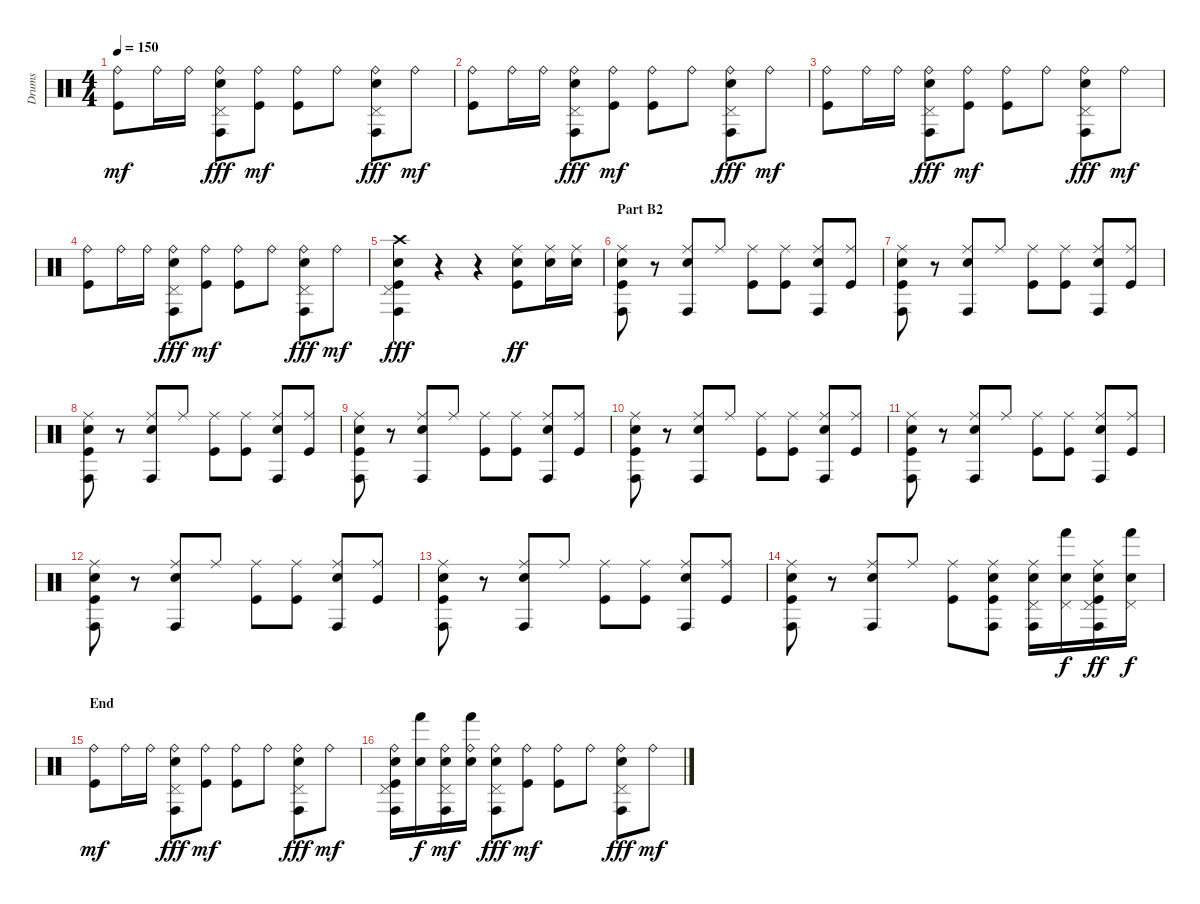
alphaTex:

\track ("Drums" "Drums") {instrument percussion}
\staff {score}
\articulation defaults
\ts (4 4)
\tempo 150
\clef neutral
\ks c
("Ride (bell)" "Kick (hit)").8{dy mf} "Ride (bell)".16 "Ride (bell)".16 ("Ride (bell)" "Pedal Hi-Hat (hit)" "Conga high (hit)" "Electric Snare (hit)").8{dy fff} ("Ride (bell)" "Kick (hit)").8{dy mf} ("Ride (bell)" "Kick (hit)").8 "Ride (bell)".8 ("Ride (bell)" "Pedal Hi-Hat (hit)" "Conga high (hit)" "Electric Snare (hit)").8{dy fff} "Ride (bell)".8{dy mf} |
("Ride (bell)" "Kick (hit)").8 "Ride (bell)".16 "Ride (bell)".16 ("Ride (bell)" "Pedal Hi-Hat (hit)" "Conga high (hit)" "Electric Snare (hit)").8{dy fff} ("Ride (bell)" "Kick (hit)").8{dy mf} ("Ride (bell)" "Kick (hit)").8 "Ride (bell)".8 ("Ride (bell)" "Pedal Hi-Hat (hit)" "Conga high (hit)" "Electric Snare (hit)").8{dy fff} "Ride (bell)".8{dy mf} |
("Ride (bell)" "Kick (hit)").8 "Ride (bell)".16 "Ride (bell)".16 ("Ride (bell)" "Pedal Hi-Hat (hit)" "Conga high (hit)" "Electric Snare (hit)").8{dy fff} ("Ride (bell)" "Kick (hit)").8{dy mf} ("Ride (bell)" "Kick (hit)").8 "Ride (bell)".8 ("Ride (bell)" "Pedal Hi-Hat (hit)" "Conga high (hit)" "Electric Snare (hit)").8{dy fff} "Ride (bell)".8{dy mf} |
("Ride (bell)" "Kick (hit)").8 "Ride (bell)".16 "Ride (bell)".16 ("Ride (bell)" "Pedal Hi-Hat (hit)" "Conga high (hit)" "Electric Snare (hit)").8{dy fff} ("Ride (bell)" "Kick (hit)").8{dy mf} ("Ride (bell)" "Kick (hit)").8 "Ride (bell)".8 ("Ride (bell)" "Pedal Hi-Hat (hit)" "Conga high (hit)" "Electric Snare (hit)").8{dy fff} "Ride (bell)".8{dy mf} |
("Crash high (hit)" "Pedal Hi-Hat (hit)" "Conga high (hit)" "Electric Snare (hit)" "Kick (hit)").4{dy fff} r.4 r.4 ("Ride (middle)" "Electric Snare (hit)" "Kick (hit)").8{dy ff} ("Ride (middle)" "Electric Snare (hit)").16 ("Ride (middle)" "Electric Snare (hit)").16 |
\section ("" "Part B2")
("Ride (middle)" "Conga high (hit)" "Electric Snare (hit)" "Kick (hit)").8 r.8 ("Ride (middle)" "Conga high (hit)" "Electric Snare (hit)").8 "Ride (middle)".8 ("Ride (middle)" "Kick (hit)").8 ("Ride (middle)" "Kick (hit)").8 ("Ride (middle)" "Conga high (hit)" "Electric Snare (hit)").8 ("Ride (middle)" "Kick (hit)").8 |
("Ride (middle)" "Conga high (hit)" "Electric Snare (hit)" "Kick (hit)").8 r.8 ("Ride (middle)" "Conga high (hit)" "Electric Snare (hit)").8 "Ride (middle)".8 ("Ride (middle)" "Kick (hit)").8 ("Ride (middle)" "Kick (hit)").8 ("Ride (middle)" "Conga high (hit)" "Electric Snare (hit)").8 ("Ride (middle)" "Kick (hit)").8 |
("Ride (middle)" "Conga high (hit)" "Electric Snare (hit)" "Kick (hit)").8 r.8 ("Ride (middle)" "Conga high (hit)" "Electric Snare (hit)").8 "Ride (middle)".8 ("Ride (middle)" "Kick (hit)").8 ("Ride (middle)" "Kick (hit)").8 ("Ride (middle)" "Conga high (hit)" "Electric Snare (hit)").8 ("Ride (middle)" "Kick (hit)").8 |
("Ride (middle)" "Conga high (hit)" "Electric Snare (hit)" "Kick (hit)").8 r.8 ("Ride (middle)" "Conga high (hit)" "Electric Snare (hit)").8 "Ride (middle)".8 ("Ride (middle)" "Kick (hit)").8 ("Ride (middle)" "Kick (hit)").8 ("Ride (middle)" "Conga high (hit)" "Electric Snare (hit)").8 ("Ride (middle)" "Kick (hit)").8 |
("Ride (middle)" "Conga high (hit)" "Electric Snare (hit)" "Kick (hit)").8 r.8 ("Ride (middle)" "Conga high (hit)" "Electric Snare (hit)").8 "Ride (middle)".8 ("Ride (middle)" "Kick (hit)").8 ("Ride (middle)" "Kick (hit)").8 ("Ride (middle)" "Conga high (hit)" "Electric Snare (hit)").8 ("Ride (middle)" "Kick (hit)").8 |
("Ride (middle)" "Conga high (hit)" "Electric Snare (hit)" "Kick (hit)").8 r.8 ("Ride (middle)" "Conga high (hit)" "Electric Snare (hit)").8 "Ride (middle)".8 ("Ride (middle)" "Kick (hit)").8 ("Ride (middle)" "Kick (hit)").8 ("Ride (middle)" "Conga high (hit)" "Electric Snare (hit)").8 ("Ride (middle)" "Kick (hit)").8 |
("Ride (middle)" "Conga high (hit)" "Electric Snare (hit)" "Kick (hit)").8 r.8 ("Ride (middle)" "Conga high (hit)" "Electric Snare (hit)").8 "Ride (middle)".8 ("Ride (middle)" "Kick (hit)").8 ("Ride (middle)" "Kick (hit)").8 ("Ride (middle)" "Conga high (hit)" "Electric Snare (hit)").8 ("Ride (middle)" "Kick (hit)").8 |
("Ride (middle)" "Conga high (hit)" "Electric Snare (hit)" "Kick (hit)").8 r.8 ("Ride (middle)" "Conga high (hit)" "Electric Snare (hit)").8 "Ride (middle)".8 ("Ride (middle)" "Kick (hit)").8 ("Ride (middle)" "Kick (hit)").8 ("Ride (middle)" "Conga high (hit)" "Electric Snare (hit)").8 ("Ride (middle)" "Kick (hit)").8 |
("Ride (middle)" "Conga high (hit)" "Electric Snare (hit)" "Kick (hit)").8 r.8 ("Ride (middle)" "Conga high (hit)" "Electric Snare (hit)").8 "Ride (middle)".8 ("Ride (middle)" "Kick (hit)").8 ("Ride (middle)" "Conga high (hit)" "Electric Snare (hit)" "Kick (hit)").8 ("Ride (middle)" "Pedal Hi-Hat (hit)" "Conga high (hit)" "Electric Snare (hit)").16 ("Pedal Hi-Hat (hit)" "Hand (hit)" "Electric Snare (hit)").16{dy f} ("Ride (middle)" "Pedal Hi-Hat (hit)" "Conga high (hit)" "Electric Snare (hit)" "Kick (hit)").16{dy ff} ("Pedal Hi-Hat (hit)" "Hand (hit)" "Electric Snare (hit)").16{dy f} |
\section ("" "End")
("Ride (bell)" "Kick (hit)").8{dy mf} "Ride (bell)".16 "Ride (bell)".16 ("Ride (bell)" "Pedal Hi-Hat (hit)" "Conga high (hit)" "Electric Snare (hit)").8{dy fff} ("Ride (bell)" "Kick (hit)").8{dy mf} ("Ride (bell)" "Kick (hit)").8 "Ride (bell)".8 ("Ride (bell)" "Pedal Hi-Hat (hit)" "Conga high (hit)" "Electric Snare (hit)").8{dy fff} "Ride (bell)".8{dy mf} |
("Ride (bell)" "Pedal Hi-Hat (hit)" "Conga high (hit)" "Electric Snare (hit)" "Kick (hit)").16 ("Hand (hit)" "Electric Snare (hit)").16{dy f} ("Ride (bell)" "Pedal Hi-Hat (hit)" "Conga high (hit)" "Electric Snare (hit)").16{dy mf} ("Ride (bell)" "Hand (hit)" "Electric Snare (hit)").16 ("Ride (bell)" "Pedal Hi-Hat (hit)" "Conga high (hit)" "Electric Snare (hit)").8{dy fff} ("Ride (bell)" "Kick (hit)").8{dy mf} ("Ride (bell)" "Kick (hit)").8 "Ride (bell)".8 ("Ride (bell)" "Pedal Hi-Hat (hit)" "Conga high (hit)" "Electric Snare (hit)").8{dy fff} "Ride (bell)".8{dy mf}
